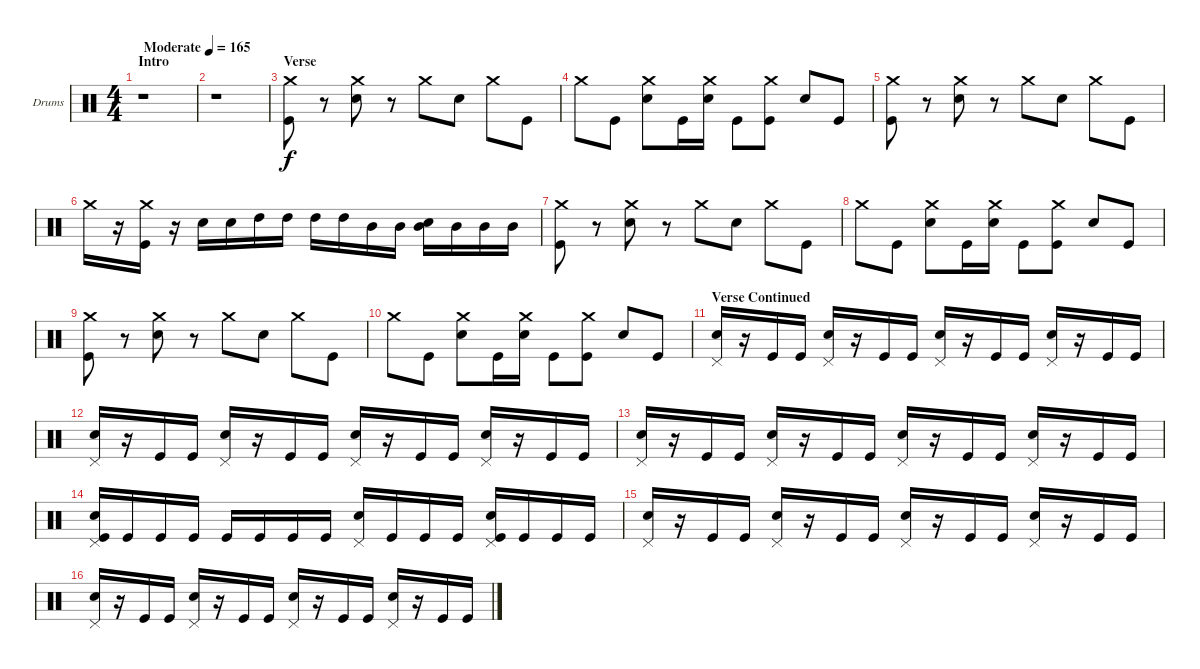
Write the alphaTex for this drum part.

\bracketExtendMode groupsimilarinstruments
\firstSystemTrackNameOrientation horizontal
\otherSystemsTrackNameOrientation horizontal
\track ("Cory La Quay" "Drums") {instrument percussion}
\staff {score}
\articulation defaults
\ts (4 4)
\beaming (8 2 2 2 2)
\section ("" "Intro")
\tempo (165 "Moderate")
\clef neutral
\ks c
r.1{dy f} |
r.1 |
\section ("" "Verse")
("Crash medium (hit)" "Kick (hit)").8 r.8 ("Crash medium (hit)" "Snare (hit) 2").8 r.8 "Crash medium (hit)".8 "Snare (hit) 2".8 "Crash medium (hit)".8 "Kick (hit)".8 |
"Crash medium (hit)".8 "Kick (hit)".8 ("Crash medium (hit)" "Snare (hit) 2").8 "Kick (hit)".16 ("Crash medium (hit)" "Snare (hit) 2").16 "Kick (hit)".8 ("Crash medium (hit)" "Kick (hit)").8 "Snare (hit) 2".8 "Kick (hit)".8 |
("Crash medium (hit)" "Kick (hit)").8 r.8 ("Crash medium (hit)" "Snare (hit) 2").8 r.8 "Crash medium (hit)".8 "Snare (hit) 2".8 "Crash medium (hit)".8 "Kick (hit)".8 |
"Crash medium (hit)".16 r.16 ("Kick (hit)" "Crash medium (hit)").16 r.16 "Snare (hit) 2".16 "Snare (hit) 2".16 "High Tom (hit)".16 "High Tom (hit)".16 "High Tom (hit)".16 "High Tom (hit)".16 "Mid Tom (hit)".16 "Mid Tom (hit)".16 ("Mid Tom (hit)" "Snare (hit) 2").16 "Mid Tom (hit)".16 "Mid Tom (hit)".16 "Mid Tom (hit)".16 |
("Crash medium (hit)" "Kick (hit)").8 r.8 ("Crash medium (hit)" "Snare (hit) 2").8 r.8 "Crash medium (hit)".8 "Snare (hit) 2".8 "Crash medium (hit)".8 "Kick (hit)".8 |
"Crash medium (hit)".8 "Kick (hit)".8 ("Crash medium (hit)" "Snare (hit) 2").8 "Kick (hit)".16 ("Crash medium (hit)" "Snare (hit) 2").16 "Kick (hit)".8 ("Crash medium (hit)" "Kick (hit)").8 "Snare (hit) 2".8 "Kick (hit)".8 |
("Crash medium (hit)" "Kick (hit)").8 r.8 ("Crash medium (hit)" "Snare (hit) 2").8 r.8 "Crash medium (hit)".8 "Snare (hit) 2".8 "Crash medium (hit)".8 "Kick (hit)".8 |
"Crash medium (hit)".8 "Kick (hit)".8 ("Crash medium (hit)" "Snare (hit) 2").8 "Kick (hit)".16 ("Crash medium (hit)" "Snare (hit) 2").16 "Kick (hit)".8 ("Crash medium (hit)" "Kick (hit)").8 "Snare (hit) 2".8 "Kick (hit)".8 |
\section ("" "Verse Continued")
("Snare (hit) 2" "Pedal Hi-Hat (hit)").16 r.16 "Kick (hit)".16 "Kick (hit)".16 ("Pedal Hi-Hat (hit)" "Snare (hit) 2").16 r.16 "Kick (hit)".16 "Kick (hit)".16 ("Pedal Hi-Hat (hit)" "Snare (hit) 2").16 r.16 "Kick (hit)".16 "Kick (hit)".16 ("Pedal Hi-Hat (hit)" "Snare (hit) 2").16 r.16 "Kick (hit)".16 "Kick (hit)".16 |
("Pedal Hi-Hat (hit)" "Snare (hit) 2").16 r.16 "Kick (hit)".16 "Kick (hit)".16 ("Pedal Hi-Hat (hit)" "Snare (hit) 2").16 r.16 "Kick (hit)".16 "Kick (hit)".16 ("Pedal Hi-Hat (hit)" "Snare (hit) 2").16 r.16 "Kick (hit)".16 "Kick (hit)".16 ("Pedal Hi-Hat (hit)" "Snare (hit) 2").16 r.16 "Kick (hit)".16 "Kick (hit)".16 |
("Pedal Hi-Hat (hit)" "Snare (hit) 2").16 r.16 "Kick (hit)".16 "Kick (hit)".16 ("Pedal Hi-Hat (hit)" "Snare (hit) 2").16 r.16 "Kick (hit)".16 "Kick (hit)".16 ("Pedal Hi-Hat (hit)" "Snare (hit) 2").16 r.16 "Kick (hit)".16 "Kick (hit)".16 ("Pedal Hi-Hat (hit)" "Snare (hit) 2").16 r.16 "Kick (hit)".16 "Kick (hit)".16 |
("Pedal Hi-Hat (hit)" "Snare (hit) 2" "Kick (hit)").16 "Kick (hit)".16 "Kick (hit)".16 "Kick (hit)".16 "Kick (hit)".16 "Kick (hit)".16 "Kick (hit)".16 "Kick (hit)".16 ("Pedal Hi-Hat (hit)" "Snare (hit) 2").16 "Kick (hit)".16 "Kick (hit)".16 "Kick (hit)".16 ("Pedal Hi-Hat (hit)" "Snare (hit) 2" "Kick (hit)").16 "Kick (hit)".16 "Kick (hit)".16 "Kick (hit)".16 |
("Pedal Hi-Hat (hit)" "Snare (hit) 2").16 r.16 "Kick (hit)".16 "Kick (hit)".16 ("Pedal Hi-Hat (hit)" "Snare (hit) 2").16 r.16 "Kick (hit)".16 "Kick (hit)".16 ("Pedal Hi-Hat (hit)" "Snare (hit) 2").16 r.16 "Kick (hit)".16 "Kick (hit)".16 ("Pedal Hi-Hat (hit)" "Snare (hit) 2").16 r.16 "Kick (hit)".16 "Kick (hit)".16 |
("Pedal Hi-Hat (hit)" "Snare (hit) 2").16 r.16 "Kick (hit)".16 "Kick (hit)".16 ("Pedal Hi-Hat (hit)" "Snare (hit) 2").16 r.16 "Kick (hit)".16 "Kick (hit)".16 ("Pedal Hi-Hat (hit)" "Snare (hit) 2").16 r.16 "Kick (hit)".16 "Kick (hit)".16 ("Pedal Hi-Hat (hit)" "Snare (hit) 2").16 r.16 "Kick (hit)".16 "Kick (hit)".16
